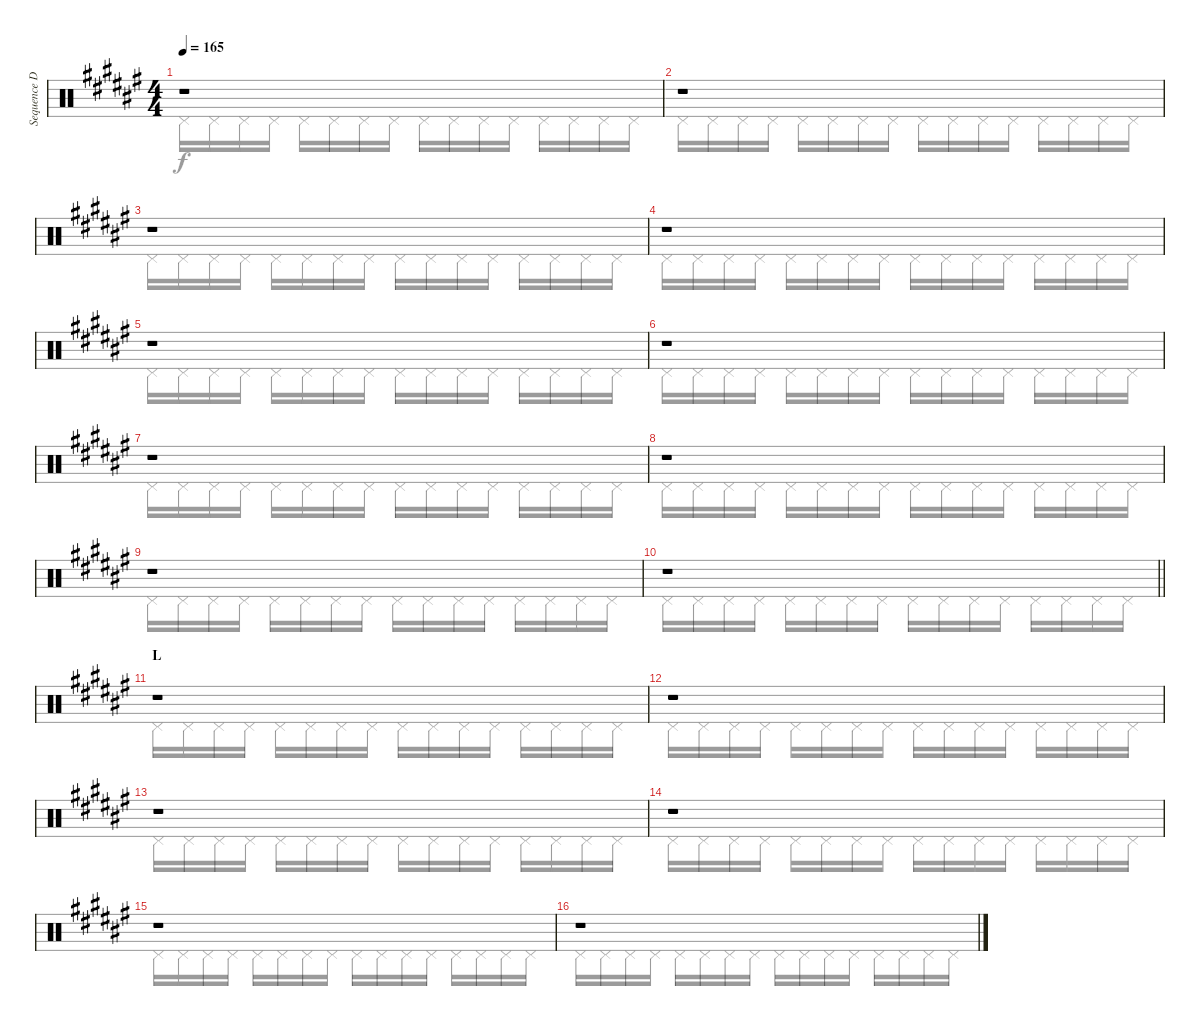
\track ("Sequence Drums" "Sequence D") {instrument percussion}
\staff {score}
\articulation defaults
\voice
\ts (4 4)
\tempo 165
\clef neutral
\ks f#
r.1{dy p} |
r.1 |
r.1 |
r.1 |
r.1 |
r.1 |
r.1 |
r.1 |
r.1 |
\barLineRight lightlight
r.1 |
\section ("" "L")
r.1 |
r.1 |
r.1 |
r.1 |
r.1 |
r.1
\voice
\clef neutral
\ottava regular
\simile none
\ks f# "Pedal Hi-Hat (hit)".16{dy f} "Pedal Hi-Hat (hit)".16 "Pedal Hi-Hat (hit)".16 "Pedal Hi-Hat (hit)".16 "Pedal Hi-Hat (hit)".16 "Pedal Hi-Hat (hit)".16 "Pedal Hi-Hat (hit)".16 "Pedal Hi-Hat (hit)".16 "Pedal Hi-Hat (hit)".16 "Pedal Hi-Hat (hit)".16 "Pedal Hi-Hat (hit)".16 "Pedal Hi-Hat (hit)".16 "Pedal Hi-Hat (hit)".16 "Pedal Hi-Hat (hit)".16 "Pedal Hi-Hat (hit)".16 "Pedal Hi-Hat (hit)".16
|
"Pedal Hi-Hat (hit)".16 "Pedal Hi-Hat (hit)".16 "Pedal Hi-Hat (hit)".16 "Pedal Hi-Hat (hit)".16 "Pedal Hi-Hat (hit)".16 "Pedal Hi-Hat (hit)".16 "Pedal Hi-Hat (hit)".16 "Pedal Hi-Hat (hit)".16 "Pedal Hi-Hat (hit)".16 "Pedal Hi-Hat (hit)".16 "Pedal Hi-Hat (hit)".16 "Pedal Hi-Hat (hit)".16 "Pedal Hi-Hat (hit)".16 "Pedal Hi-Hat (hit)".16 "Pedal Hi-Hat (hit)".16 "Pedal Hi-Hat (hit)".16 |
"Pedal Hi-Hat (hit)".16 "Pedal Hi-Hat (hit)".16 "Pedal Hi-Hat (hit)".16 "Pedal Hi-Hat (hit)".16 "Pedal Hi-Hat (hit)".16 "Pedal Hi-Hat (hit)".16 "Pedal Hi-Hat (hit)".16 "Pedal Hi-Hat (hit)".16 "Pedal Hi-Hat (hit)".16 "Pedal Hi-Hat (hit)".16 "Pedal Hi-Hat (hit)".16 "Pedal Hi-Hat (hit)".16 "Pedal Hi-Hat (hit)".16 "Pedal Hi-Hat (hit)".16 "Pedal Hi-Hat (hit)".16 "Pedal Hi-Hat (hit)".16 |
"Pedal Hi-Hat (hit)".16 "Pedal Hi-Hat (hit)".16 "Pedal Hi-Hat (hit)".16 "Pedal Hi-Hat (hit)".16 "Pedal Hi-Hat (hit)".16 "Pedal Hi-Hat (hit)".16 "Pedal Hi-Hat (hit)".16 "Pedal Hi-Hat (hit)".16 "Pedal Hi-Hat (hit)".16 "Pedal Hi-Hat (hit)".16 "Pedal Hi-Hat (hit)".16 "Pedal Hi-Hat (hit)".16 "Pedal Hi-Hat (hit)".16 "Pedal Hi-Hat (hit)".16 "Pedal Hi-Hat (hit)".16 "Pedal Hi-Hat (hit)".16 |
"Pedal Hi-Hat (hit)".16 "Pedal Hi-Hat (hit)".16 "Pedal Hi-Hat (hit)".16 "Pedal Hi-Hat (hit)".16 "Pedal Hi-Hat (hit)".16 "Pedal Hi-Hat (hit)".16 "Pedal Hi-Hat (hit)".16 "Pedal Hi-Hat (hit)".16 "Pedal Hi-Hat (hit)".16 "Pedal Hi-Hat (hit)".16 "Pedal Hi-Hat (hit)".16 "Pedal Hi-Hat (hit)".16 "Pedal Hi-Hat (hit)".16 "Pedal Hi-Hat (hit)".16 "Pedal Hi-Hat (hit)".16 "Pedal Hi-Hat (hit)".16 |
"Pedal Hi-Hat (hit)".16 "Pedal Hi-Hat (hit)".16 "Pedal Hi-Hat (hit)".16 "Pedal Hi-Hat (hit)".16 "Pedal Hi-Hat (hit)".16 "Pedal Hi-Hat (hit)".16 "Pedal Hi-Hat (hit)".16 "Pedal Hi-Hat (hit)".16 "Pedal Hi-Hat (hit)".16 "Pedal Hi-Hat (hit)".16 "Pedal Hi-Hat (hit)".16 "Pedal Hi-Hat (hit)".16 "Pedal Hi-Hat (hit)".16 "Pedal Hi-Hat (hit)".16 "Pedal Hi-Hat (hit)".16 "Pedal Hi-Hat (hit)".16 |
"Pedal Hi-Hat (hit)".16 "Pedal Hi-Hat (hit)".16 "Pedal Hi-Hat (hit)".16 "Pedal Hi-Hat (hit)".16 "Pedal Hi-Hat (hit)".16 "Pedal Hi-Hat (hit)".16 "Pedal Hi-Hat (hit)".16 "Pedal Hi-Hat (hit)".16 "Pedal Hi-Hat (hit)".16 "Pedal Hi-Hat (hit)".16 "Pedal Hi-Hat (hit)".16 "Pedal Hi-Hat (hit)".16 "Pedal Hi-Hat (hit)".16 "Pedal Hi-Hat (hit)".16 "Pedal Hi-Hat (hit)".16 "Pedal Hi-Hat (hit)".16 |
"Pedal Hi-Hat (hit)".16 "Pedal Hi-Hat (hit)".16 "Pedal Hi-Hat (hit)".16 "Pedal Hi-Hat (hit)".16 "Pedal Hi-Hat (hit)".16 "Pedal Hi-Hat (hit)".16 "Pedal Hi-Hat (hit)".16 "Pedal Hi-Hat (hit)".16 "Pedal Hi-Hat (hit)".16 "Pedal Hi-Hat (hit)".16 "Pedal Hi-Hat (hit)".16 "Pedal Hi-Hat (hit)".16 "Pedal Hi-Hat (hit)".16 "Pedal Hi-Hat (hit)".16 "Pedal Hi-Hat (hit)".16 "Pedal Hi-Hat (hit)".16 |
"Pedal Hi-Hat (hit)".16 "Pedal Hi-Hat (hit)".16 "Pedal Hi-Hat (hit)".16 "Pedal Hi-Hat (hit)".16 "Pedal Hi-Hat (hit)".16 "Pedal Hi-Hat (hit)".16 "Pedal Hi-Hat (hit)".16 "Pedal Hi-Hat (hit)".16 "Pedal Hi-Hat (hit)".16 "Pedal Hi-Hat (hit)".16 "Pedal Hi-Hat (hit)".16 "Pedal Hi-Hat (hit)".16 "Pedal Hi-Hat (hit)".16 "Pedal Hi-Hat (hit)".16 "Pedal Hi-Hat (hit)".16 "Pedal Hi-Hat (hit)".16 |
\barLineRight lightlight "Pedal Hi-Hat (hit)".16 "Pedal Hi-Hat (hit)".16 "Pedal Hi-Hat (hit)".16 "Pedal Hi-Hat (hit)".16 "Pedal Hi-Hat (hit)".16 "Pedal Hi-Hat (hit)".16 "Pedal Hi-Hat (hit)".16 "Pedal Hi-Hat (hit)".16 "Pedal Hi-Hat (hit)".16 "Pedal Hi-Hat (hit)".16 "Pedal Hi-Hat (hit)".16 "Pedal Hi-Hat (hit)".16 "Pedal Hi-Hat (hit)".16 "Pedal Hi-Hat (hit)".16 "Pedal Hi-Hat (hit)".16 "Pedal Hi-Hat (hit)".16
|
"Pedal Hi-Hat (hit)".16 "Pedal Hi-Hat (hit)".16 "Pedal Hi-Hat (hit)".16 "Pedal Hi-Hat (hit)".16 "Pedal Hi-Hat (hit)".16 "Pedal Hi-Hat (hit)".16 "Pedal Hi-Hat (hit)".16 "Pedal Hi-Hat (hit)".16 "Pedal Hi-Hat (hit)".16 "Pedal Hi-Hat (hit)".16 "Pedal Hi-Hat (hit)".16 "Pedal Hi-Hat (hit)".16 "Pedal Hi-Hat (hit)".16 "Pedal Hi-Hat (hit)".16 "Pedal Hi-Hat (hit)".16 "Pedal Hi-Hat (hit)".16 |
"Pedal Hi-Hat (hit)".16 "Pedal Hi-Hat (hit)".16 "Pedal Hi-Hat (hit)".16 "Pedal Hi-Hat (hit)".16 "Pedal Hi-Hat (hit)".16 "Pedal Hi-Hat (hit)".16 "Pedal Hi-Hat (hit)".16 "Pedal Hi-Hat (hit)".16 "Pedal Hi-Hat (hit)".16 "Pedal Hi-Hat (hit)".16 "Pedal Hi-Hat (hit)".16 "Pedal Hi-Hat (hit)".16 "Pedal Hi-Hat (hit)".16 "Pedal Hi-Hat (hit)".16 "Pedal Hi-Hat (hit)".16 "Pedal Hi-Hat (hit)".16 |
"Pedal Hi-Hat (hit)".16 "Pedal Hi-Hat (hit)".16 "Pedal Hi-Hat (hit)".16 "Pedal Hi-Hat (hit)".16 "Pedal Hi-Hat (hit)".16 "Pedal Hi-Hat (hit)".16 "Pedal Hi-Hat (hit)".16 "Pedal Hi-Hat (hit)".16 "Pedal Hi-Hat (hit)".16 "Pedal Hi-Hat (hit)".16 "Pedal Hi-Hat (hit)".16 "Pedal Hi-Hat (hit)".16 "Pedal Hi-Hat (hit)".16 "Pedal Hi-Hat (hit)".16 "Pedal Hi-Hat (hit)".16 "Pedal Hi-Hat (hit)".16 |
"Pedal Hi-Hat (hit)".16 "Pedal Hi-Hat (hit)".16 "Pedal Hi-Hat (hit)".16 "Pedal Hi-Hat (hit)".16 "Pedal Hi-Hat (hit)".16 "Pedal Hi-Hat (hit)".16 "Pedal Hi-Hat (hit)".16 "Pedal Hi-Hat (hit)".16 "Pedal Hi-Hat (hit)".16 "Pedal Hi-Hat (hit)".16 "Pedal Hi-Hat (hit)".16 "Pedal Hi-Hat (hit)".16 "Pedal Hi-Hat (hit)".16 "Pedal Hi-Hat (hit)".16 "Pedal Hi-Hat (hit)".16 "Pedal Hi-Hat (hit)".16 |
"Pedal Hi-Hat (hit)".16 "Pedal Hi-Hat (hit)".16 "Pedal Hi-Hat (hit)".16 "Pedal Hi-Hat (hit)".16 "Pedal Hi-Hat (hit)".16 "Pedal Hi-Hat (hit)".16 "Pedal Hi-Hat (hit)".16 "Pedal Hi-Hat (hit)".16 "Pedal Hi-Hat (hit)".16 "Pedal Hi-Hat (hit)".16 "Pedal Hi-Hat (hit)".16 "Pedal Hi-Hat (hit)".16 "Pedal Hi-Hat (hit)".16 "Pedal Hi-Hat (hit)".16 "Pedal Hi-Hat (hit)".16 "Pedal Hi-Hat (hit)".16 |
"Pedal Hi-Hat (hit)".16 "Pedal Hi-Hat (hit)".16 "Pedal Hi-Hat (hit)".16 "Pedal Hi-Hat (hit)".16 "Pedal Hi-Hat (hit)".16 "Pedal Hi-Hat (hit)".16 "Pedal Hi-Hat (hit)".16 "Pedal Hi-Hat (hit)".16 "Pedal Hi-Hat (hit)".16 "Pedal Hi-Hat (hit)".16 "Pedal Hi-Hat (hit)".16 "Pedal Hi-Hat (hit)".16 "Pedal Hi-Hat (hit)".16 "Pedal Hi-Hat (hit)".16 "Pedal Hi-Hat (hit)".16 "Pedal Hi-Hat (hit)".16
